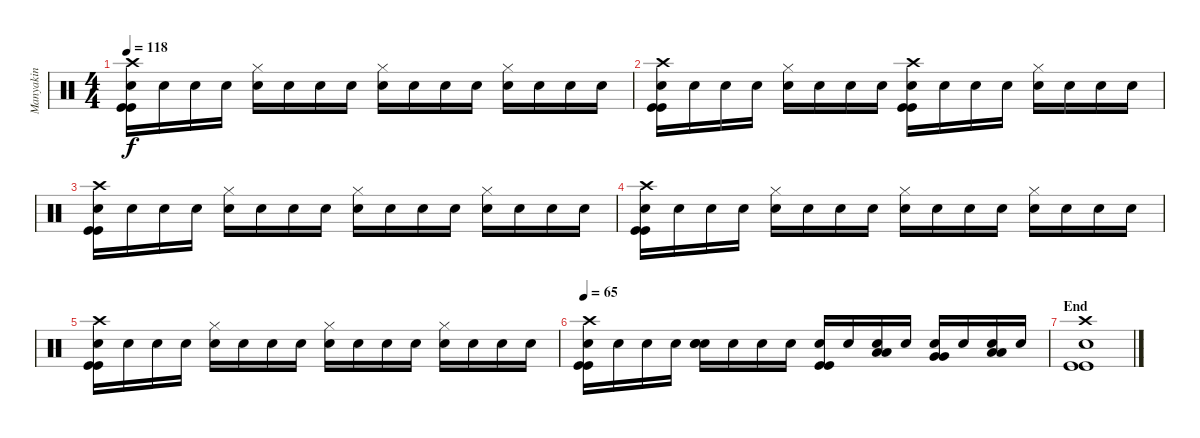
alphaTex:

\track ("Manyakin" "Manyakin") {instrument percussion}
\staff {score}
\articulation defaults
\ts (4 4)
\tempo 118
\clef neutral
\ks c
("Crash high (hit)" "Kick (hit)" "Kick (hit)" "Snare (hit)"{x}).16{dy f} "Snare (hit)"{x}.16 "Snare (hit)"{x}.16 "Snare (hit)"{x}.16 ("Hi-Hat (closed)" "Snare (hit)"{x}).16 "Snare (hit)"{x}.16 "Snare (hit)"{x}.16 "Snare (hit)"{x}.16 ("Hi-Hat (closed)" "Snare (hit)"{x}).16 "Snare (hit)"{x}.16 "Snare (hit)"{x}.16 "Snare (hit)"{x}.16 ("Hi-Hat (closed)" "Snare (hit)"{x}).16 "Snare (hit)"{x}.16 "Snare (hit)"{x}.16 "Snare (hit)"{x}.16 |
("Crash high (hit)" "Kick (hit)" "Kick (hit)" "Snare (hit)"{x}).16 "Snare (hit)"{x}.16 "Snare (hit)"{x}.16 "Snare (hit)"{x}.16 ("Hi-Hat (closed)" "Snare (hit)"{x}).16 "Snare (hit)"{x}.16 "Snare (hit)"{x}.16 "Snare (hit)"{x}.16 ("Crash high (hit)" "Kick (hit)" "Kick (hit)" "Snare (hit)"{x}).16 "Snare (hit)"{x}.16 "Snare (hit)"{x}.16 "Snare (hit)"{x}.16 ("Hi-Hat (closed)" "Snare (hit)"{x}).16 "Snare (hit)"{x}.16 "Snare (hit)"{x}.16 "Snare (hit)"{x}.16 |
("Crash high (hit)" "Kick (hit)" "Kick (hit)" "Snare (hit)"{x}).16 "Snare (hit)"{x}.16 "Snare (hit)"{x}.16 "Snare (hit)"{x}.16 ("Hi-Hat (closed)" "Snare (hit)"{x}).16 "Snare (hit)"{x}.16 "Snare (hit)"{x}.16 "Snare (hit)"{x}.16 ("Hi-Hat (closed)" "Snare (hit)"{x}).16 "Snare (hit)"{x}.16 "Snare (hit)"{x}.16 "Snare (hit)"{x}.16 ("Hi-Hat (closed)" "Snare (hit)"{x}).16 "Snare (hit)"{x}.16 "Snare (hit)"{x}.16 "Snare (hit)"{x}.16 |
("Crash high (hit)" "Kick (hit)" "Kick (hit)" "Snare (hit)"{x}).16 "Snare (hit)"{x}.16 "Snare (hit)"{x}.16 "Snare (hit)"{x}.16 ("Hi-Hat (closed)" "Snare (hit)"{x}).16 "Snare (hit)"{x}.16 "Snare (hit)"{x}.16 "Snare (hit)"{x}.16 ("Hi-Hat (closed)" "Snare (hit)"{x}).16 "Snare (hit)"{x}.16 "Snare (hit)"{x}.16 "Snare (hit)"{x}.16 ("Hi-Hat (closed)" "Snare (hit)"{x}).16 "Snare (hit)"{x}.16 "Snare (hit)"{x}.16 "Snare (hit)"{x}.16 |
("Crash high (hit)" "Kick (hit)" "Kick (hit)" "Snare (hit)"{x}).16 "Snare (hit)"{x}.16 "Snare (hit)"{x}.16 "Snare (hit)"{x}.16 ("Hi-Hat (closed)" "Snare (hit)"{x}).16 "Snare (hit)"{x}.16 "Snare (hit)"{x}.16 "Snare (hit)"{x}.16 ("Hi-Hat (closed)" "Snare (hit)"{x}).16 "Snare (hit)"{x}.16 "Snare (hit)"{x}.16 "Snare (hit)"{x}.16 ("Hi-Hat (closed)" "Snare (hit)"{x}).16 "Snare (hit)"{x}.16 "Snare (hit)"{x}.16 "Snare (hit)"{x}.16 |
\tempo 65
("Crash high (hit)" "Kick (hit)" "Kick (hit)" "Snare (hit)"{x}).16 "Snare (hit)"{x}.16 "Snare (hit)"{x}.16 "Snare (hit)"{x}.16 ("Electric Snare (hit)" "Electric Snare (hit)" "Snare (hit)"{x}).16 "Snare (hit)"{x}.16 "Snare (hit)"{x}.16 "Snare (hit)"{x}.16 ("Kick (hit)" "Kick (hit)" "Snare (hit)"{x}).16 "Snare (hit)"{x}.16 ("Low Tom (hit)" "Low Tom (hit)" "Snare (hit)"{x}).16 "Snare (hit)"{x}.16 ("Very Low Tom (hit)" "Very Low Tom (hit)" "Snare (hit)"{x}).16 "Snare (hit)"{x}.16 ("Low Floor Tom (hit)" "Low Floor Tom (hit)" "Snare (hit)"{x}).16 "Snare (hit)"{x}.16 |
\section ("" "End")
("Crash high (hit)" "Kick (hit)" "Kick (hit)" "Snare (hit)"{x}).1
